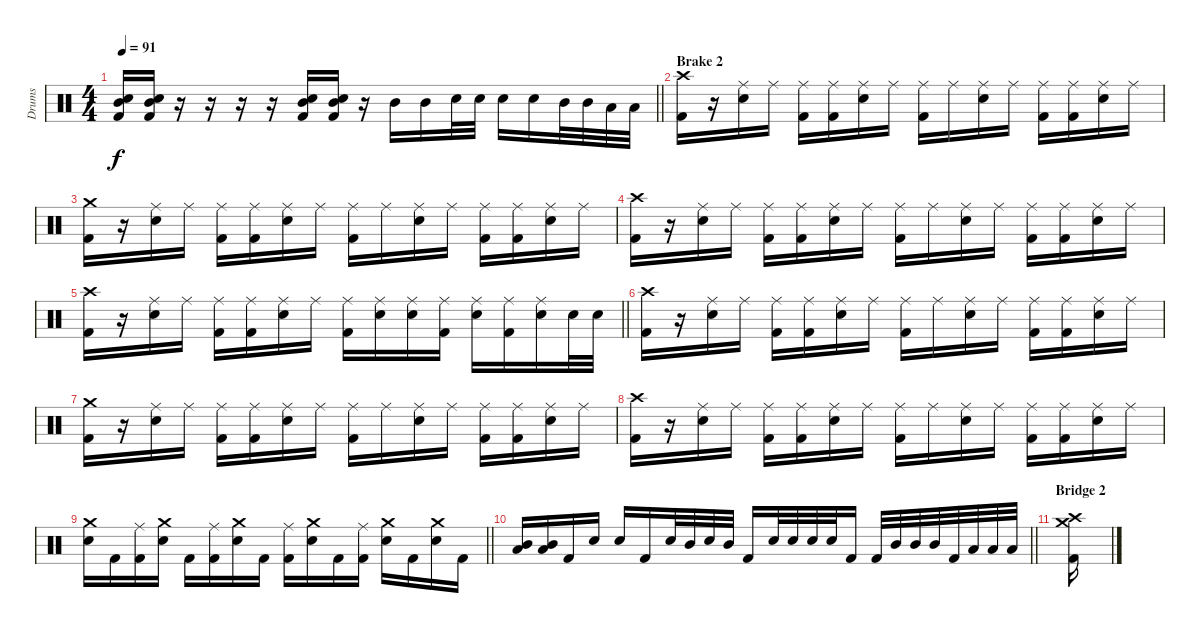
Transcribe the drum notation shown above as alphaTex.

\track ("Drums" "Drums") {instrument percussion}
\staff {score}
\articulation defaults
\ts (4 4)
\tempo 91
\clef neutral
\barLineRight lightlight
\ks c
("Mid Tom (hit)" "Snare (hit) 2" "Kick (hit) 2").16{dy f} ("Mid Tom (hit)" "Snare (hit) 2" "Kick (hit) 2").16 r.16 r.16 r.16 r.16 ("Mid Tom (hit)" "Snare (hit) 2" "Kick (hit) 2").16 ("Mid Tom (hit)" "Snare (hit) 2" "Kick (hit) 2").16 r.16 "Mid Tom (hit)".16 "Mid Tom (hit)".16 "Snare (hit) 2".32 "Snare (hit) 2".32 "Snare (hit) 2".16 "Snare (hit) 2".16 "Mid Tom (hit)".32 "Mid Tom (hit)".32 "Low Tom (hit)".32 "Low Tom (hit)".32 |
\section ("" "Brake 2")
("Crash high (hit)" "Kick (hit) 2").16 r.16 ("Ride (middle)" "Snare (hit) 2").16 "Ride (middle)".16 ("Ride (middle)" "Kick (hit) 2").16 ("Ride (middle)" "Kick (hit) 2").16 ("Ride (middle)" "Snare (hit) 2").16 "Ride (middle)".16 ("Ride (middle)" "Kick (hit) 2").16 "Ride (middle)".16 ("Ride (middle)" "Snare (hit) 2").16 "Ride (middle)".16 ("Ride (middle)" "Kick (hit) 2").16 ("Ride (middle)" "Kick (hit) 2").16 ("Ride (middle)" "Snare (hit) 2").16 "Ride (middle)".16 |
("Crash medium (hit)" "Kick (hit) 2").16 r.16 ("Ride (middle)" "Snare (hit) 2").16 "Ride (middle)".16 ("Ride (middle)" "Kick (hit) 2").16 ("Ride (middle)" "Kick (hit) 2").16 ("Ride (middle)" "Snare (hit) 2").16 "Ride (middle)".16 ("Ride (middle)" "Kick (hit) 2").16 "Ride (middle)".16 ("Ride (middle)" "Snare (hit) 2").16 "Ride (middle)".16 ("Ride (middle)" "Kick (hit) 2").16 ("Ride (middle)" "Kick (hit) 2").16 ("Ride (middle)" "Snare (hit) 2").16 "Ride (middle)".16 |
("Crash high (hit)" "Kick (hit) 2").16 r.16 ("Ride (middle)" "Snare (hit) 2").16 "Ride (middle)".16 ("Ride (middle)" "Kick (hit) 2").16 ("Ride (middle)" "Kick (hit) 2").16 ("Ride (middle)" "Snare (hit) 2").16 "Ride (middle)".16 ("Ride (middle)" "Kick (hit) 2").16 "Ride (middle)".16 ("Ride (middle)" "Snare (hit) 2").16 "Ride (middle)".16 ("Ride (middle)" "Kick (hit) 2").16 ("Ride (middle)" "Kick (hit) 2").16 ("Ride (middle)" "Snare (hit) 2").16 "Ride (middle)".16 |
\barLineRight lightlight
("Crash high (hit)" "Kick (hit) 2").16 r.16 ("Ride (middle)" "Snare (hit) 2").16 "Ride (middle)".16 ("Ride (middle)" "Kick (hit) 2").16 ("Ride (middle)" "Kick (hit) 2").16 ("Ride (middle)" "Snare (hit) 2").16 "Ride (middle)".16 ("Ride (middle)" "Kick (hit) 2").16 ("Ride (middle)" "Snare (hit) 2").16 ("Ride (middle)" "Snare (hit) 2").16 ("Ride (middle)" "Kick (hit) 2").16 ("Ride (middle)" "Snare (hit) 2").16 ("Ride (middle)" "Kick (hit) 2").16 ("Ride (middle)" "Snare (hit) 2").16 "Snare (hit) 2".32 "Snare (hit) 2".32 |
("Crash high (hit)" "Kick (hit) 2").16 r.16 ("Ride (middle)" "Snare (hit) 2").16 "Ride (middle)".16 ("Ride (middle)" "Kick (hit) 2").16 ("Ride (middle)" "Kick (hit) 2").16 ("Ride (middle)" "Snare (hit) 2").16 "Ride (middle)".16 ("Ride (middle)" "Kick (hit) 2").16 "Ride (middle)".16 ("Ride (middle)" "Snare (hit) 2").16 "Ride (middle)".16 ("Ride (middle)" "Kick (hit) 2").16 ("Ride (middle)" "Kick (hit) 2").16 ("Ride (middle)" "Snare (hit) 2").16 "Ride (middle)".16 |
("Crash medium (hit)" "Kick (hit) 2").16 r.16 ("Ride (middle)" "Snare (hit) 2").16 "Ride (middle)".16 ("Ride (middle)" "Kick (hit) 2").16 ("Ride (middle)" "Kick (hit) 2").16 ("Ride (middle)" "Snare (hit) 2").16 "Ride (middle)".16 ("Ride (middle)" "Kick (hit) 2").16 "Ride (middle)".16 ("Ride (middle)" "Snare (hit) 2").16 "Ride (middle)".16 ("Ride (middle)" "Kick (hit) 2").16 ("Ride (middle)" "Kick (hit) 2").16 ("Ride (middle)" "Snare (hit) 2").16 "Ride (middle)".16 |
("Crash high (hit)" "Kick (hit) 2").16 r.16 ("Ride (middle)" "Snare (hit) 2").16 "Ride (middle)".16 ("Ride (middle)" "Kick (hit) 2").16 ("Ride (middle)" "Kick (hit) 2").16 ("Ride (middle)" "Snare (hit) 2").16 "Ride (middle)".16 ("Ride (middle)" "Kick (hit) 2").16 "Ride (middle)".16 ("Ride (middle)" "Snare (hit) 2").16 "Ride (middle)".16 ("Ride (middle)" "Kick (hit) 2").16 ("Ride (middle)" "Kick (hit) 2").16 ("Ride (middle)" "Snare (hit) 2").16 "Ride (middle)".16 |
\barLineRight lightlight
("Crash medium (hit)" "Snare (hit) 2").16 "Kick (hit) 2".16 ("Ride (middle)" "Kick (hit) 2").16 ("Crash medium (hit)" "Snare (hit) 2").16 "Kick (hit) 2".16 ("Ride (middle)" "Kick (hit) 2").16 ("Crash medium (hit)" "Snare (hit) 2").16 "Kick (hit) 2".16 ("Ride (middle)" "Kick (hit) 2").16 ("Crash medium (hit)" "Snare (hit) 2").16 "Kick (hit) 2".16 ("Ride (middle)" "Kick (hit) 2").16 ("Crash medium (hit)" "Snare (hit) 2").16 "Kick (hit) 2".16 ("Crash medium (hit)" "Snare (hit) 2").16 "Kick (hit) 2".16 |
\barLineRight lightlight
("Mid Tom (hit)" "Low Tom (hit)").16 ("Mid Tom (hit)" "Low Tom (hit)").16 "Kick (hit) 2".16 "Snare (hit) 2".16 "Snare (hit) 2".16 "Kick (hit) 2".16 "Snare (hit) 2".32 "Mid Tom (hit)".32 "Snare (hit) 2".32 "Mid Tom (hit)".32 "Kick (hit) 2".16 "Snare (hit) 2".32 "Snare (hit) 2".32 "Snare (hit) 2".32 "Snare (hit) 2".32 "Kick (hit) 2".16 "Kick (hit) 2".32 "Mid Tom (hit)".32 "Mid Tom (hit)".32 "Mid Tom (hit)".32 "Kick (hit) 2".32 "Low Tom (hit)".32 "Low Tom (hit)".32 "Low Tom (hit)".32 |
\section ("" "Bridge 2")
("Crash high (hit)" "Crash medium (hit)" "Kick (hit) 2").16
